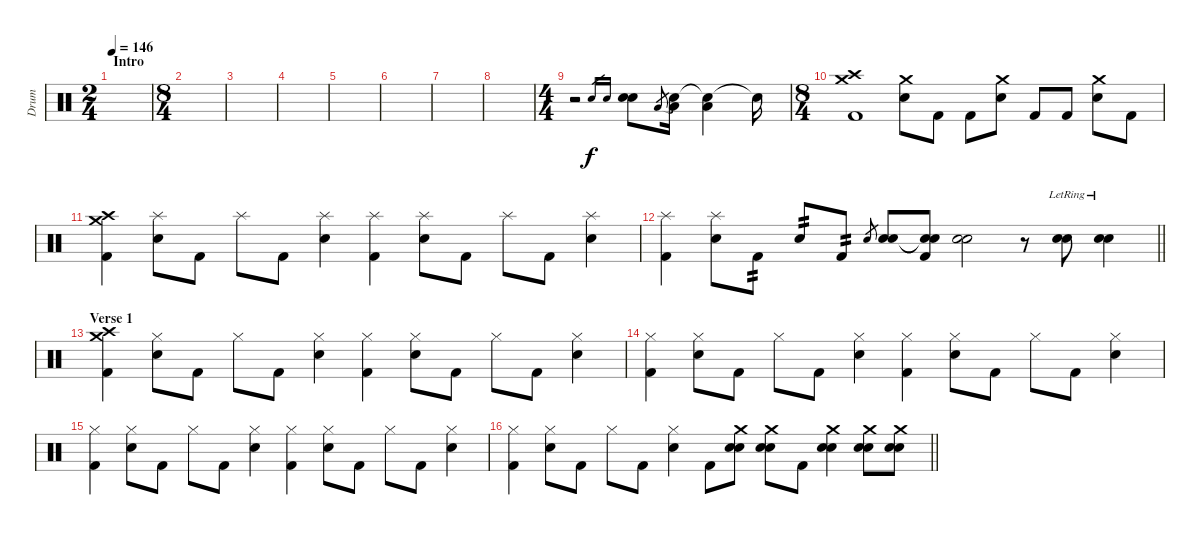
\track ("Drum" "Drum") {instrument percussion}
\staff {score}
\articulation defaults
\ts (2 4)
\section ("" "Intro")
\tempo 146
\clef neutral
\ks c
|
\ts (8 4)
|
|
|
|
|
|
|
\ts (4 4)
r.2 "Electric Snare (hit)".16{gr} "Electric Snare (hit)".16{gr} ("Electric Snare (hit)" "Electric Snare (hit)").8 "Low Tom (hit)".8{gr} ("Snare (hit)"{t} "Low Tom (hit)").16 ("Snare (hit)"{t} "Low Tom (hit)").4 "Snare (hit)"{t}.16 |
\ts (8 4)
("Kick (hit) 2" "Crash high (hit)" "Crash medium (hit)").1 ("Electric Snare (hit)" "Crash medium (hit)").8 "Kick (hit) 2".8 "Kick (hit) 2".8 ("Electric Snare (hit)" "Crash medium (hit)").8 "Kick (hit) 2".8 "Kick (hit) 2".8 ("Electric Snare (hit)" "Crash medium (hit)").8 "Kick (hit) 2".8 |
("Kick (hit) 2" "Crash high (hit)" "Crash medium (hit)").4 ("Splash (hit)" "Electric Snare (hit)").8 "Kick (hit) 2".8 "Splash (hit)".8 "Kick (hit) 2".8 ("Splash (hit)" "Electric Snare (hit)").4 ("Splash (hit)" "Kick (hit) 2").4 ("Splash (hit)" "Electric Snare (hit)").8 "Kick (hit) 2".8 "Splash (hit)".8 "Kick (hit) 2".8 ("Splash (hit)" "Electric Snare (hit)").4 |
\barLineRight lightlight
("Splash (hit)" "Kick (hit) 2").4 ("Splash (hit)" "Electric Snare (hit)").8 "Kick (hit) 2".8{tp 2} "Electric Snare (hit)".8{tp 2} "Kick (hit) 2".8{tp 2} "Electric Snare (hit)".8{gr} ("Electric Snare (hit)" "Electric Snare (hit)").8 ("Snare (hit)"{t} "Snare (hit)"{t} "Kick (hit) 2").8 ("Electric Snare (hit)" "Electric Snare (hit)").2 r.8 ("Electric Snare (hit)"{lr} "Electric Snare (hit)"{lr}).8 ("Electric Snare (hit)"{lr} "Electric Snare (hit)"{lr}).4 |
\section ("" "Verse 1")
("Kick (hit) 2" "Crash high (hit)" "Crash medium (hit)").4 ("Hi-Hat (closed)" "Electric Snare (hit)").8 "Kick (hit) 2".8 "Hi-Hat (closed)".8 "Kick (hit) 2".8 ("Hi-Hat (closed)" "Electric Snare (hit)").4 ("Hi-Hat (closed)" "Kick (hit) 2").4 ("Hi-Hat (closed)" "Electric Snare (hit)").8 "Kick (hit) 2".8 "Hi-Hat (closed)".8 "Kick (hit) 2".8 ("Hi-Hat (closed)" "Electric Snare (hit)").4 |
("Hi-Hat (closed)" "Kick (hit) 2").4 ("Hi-Hat (closed)" "Electric Snare (hit)").8 "Kick (hit) 2".8 "Hi-Hat (closed)".8 "Kick (hit) 2".8 ("Hi-Hat (closed)" "Electric Snare (hit)").4 ("Hi-Hat (closed)" "Kick (hit) 2").4 ("Hi-Hat (closed)" "Electric Snare (hit)").8 "Kick (hit) 2".8 "Hi-Hat (closed)".8 "Kick (hit) 2".8 ("Hi-Hat (closed)" "Electric Snare (hit)").4 |
("Hi-Hat (closed)" "Kick (hit) 2").4 ("Hi-Hat (closed)" "Electric Snare (hit)").8 "Kick (hit) 2".8 "Hi-Hat (closed)".8 "Kick (hit) 2".8 ("Hi-Hat (closed)" "Electric Snare (hit)").4 ("Hi-Hat (closed)" "Kick (hit) 2").4 ("Hi-Hat (closed)" "Electric Snare (hit)").8 "Kick (hit) 2".8 "Hi-Hat (closed)".8 "Kick (hit) 2".8 ("Hi-Hat (closed)" "Electric Snare (hit)").4 |
\barLineRight lightlight
("Hi-Hat (closed)" "Kick (hit) 2").4 ("Hi-Hat (closed)" "Electric Snare (hit)").8 "Kick (hit) 2".8 "Hi-Hat (closed)".8 "Kick (hit) 2".8 ("Hi-Hat (closed)" "Electric Snare (hit)").4 "Kick (hit) 2".8 ("Electric Snare (hit)" "Electric Snare (hit)" "Crash medium (hit)").8 ("Electric Snare (hit)" "Electric Snare (hit)" "Crash medium (hit)").8 "Kick (hit) 2".8 ("Electric Snare (hit)" "Electric Snare (hit)" "Crash medium (hit)").4 ("Electric Snare (hit)" "Electric Snare (hit)" "Crash medium (hit)").8 ("Electric Snare (hit)" "Electric Snare (hit)" "Crash medium (hit)").8
